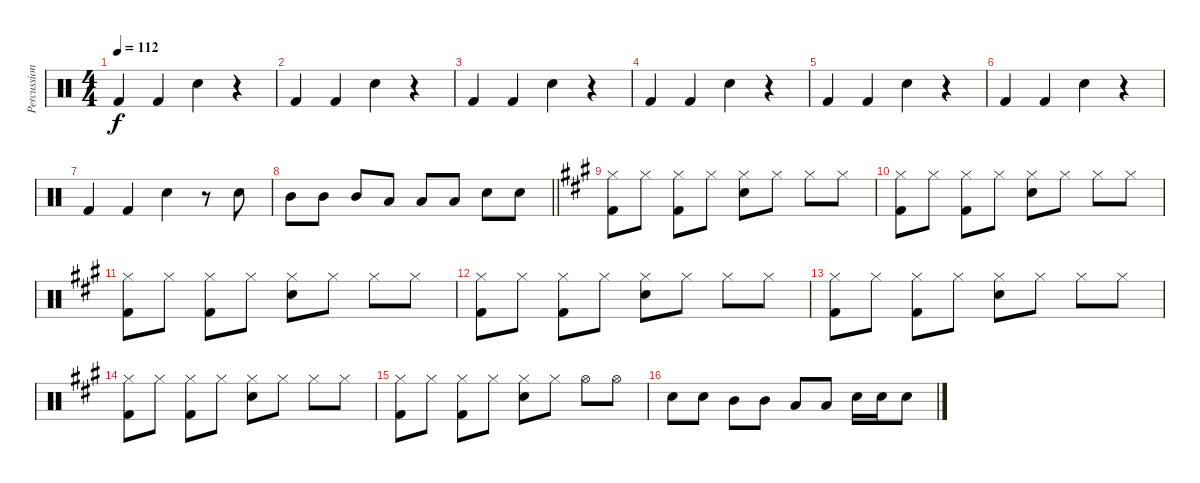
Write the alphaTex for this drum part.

\track ("Percussion" "Percussion") {instrument percussion}
\staff {score}
\articulation defaults
\ts (4 4)
\tempo 112
\clef neutral
\ks c "Kick (hit) 2".4{dy f} "Kick (hit) 2".4 "Snare (hit) 2".4
r.4 |
"Kick (hit) 2".4 "Kick (hit) 2".4 "Snare (hit) 2".4 r.4 |
"Kick (hit) 2".4 "Kick (hit) 2".4 "Snare (hit) 2".4 r.4 |
"Kick (hit) 2".4 "Kick (hit) 2".4 "Snare (hit) 2".4 r.4 |
"Kick (hit) 2".4 "Kick (hit) 2".4 "Snare (hit) 2".4 r.4 |
"Kick (hit) 2".4 "Kick (hit) 2".4 "Snare (hit) 2".4 r.4 |
"Kick (hit) 2".4 "Kick (hit) 2".4 "Snare (hit) 2".4 r.8 "Snare (hit) 2".8 |
\barLineRight lightlight "Mid Tom (hit)".8 "Mid Tom (hit)".8 "Mid Tom (hit)".8 "Low Tom (hit)".8 "Low Tom (hit)".8 "Low Tom (hit)".8 "Snare (hit) 2".8 "Snare (hit) 2".8
|
\ks a
("Hi-Hat (closed)" "Kick (hit) 2").8 "Hi-Hat (closed)".8 ("Hi-Hat (closed)" "Kick (hit) 2").8 "Hi-Hat (closed)".8 ("Hi-Hat (closed)" "Snare (hit) 2").8 "Hi-Hat (closed)".8 "Hi-Hat (closed)".8 "Hi-Hat (closed)".8 |
("Hi-Hat (closed)" "Kick (hit) 2").8 "Hi-Hat (closed)".8 ("Hi-Hat (closed)" "Kick (hit) 2").8 "Hi-Hat (closed)".8 ("Hi-Hat (closed)" "Snare (hit) 2").8 "Hi-Hat (closed)".8 "Hi-Hat (closed)".8 "Hi-Hat (closed)".8 |
("Hi-Hat (closed)" "Kick (hit) 2").8 "Hi-Hat (closed)".8 ("Hi-Hat (closed)" "Kick (hit) 2").8 "Hi-Hat (closed)".8 ("Hi-Hat (closed)" "Snare (hit) 2").8 "Hi-Hat (closed)".8 "Hi-Hat (closed)".8 "Hi-Hat (closed)".8 |
("Hi-Hat (closed)" "Kick (hit) 2").8 "Hi-Hat (closed)".8 ("Hi-Hat (closed)" "Kick (hit) 2").8 "Hi-Hat (closed)".8 ("Hi-Hat (closed)" "Snare (hit) 2").8 "Hi-Hat (closed)".8 "Hi-Hat (closed)".8 "Hi-Hat (closed)".8 |
("Hi-Hat (closed)" "Kick (hit) 2").8 "Hi-Hat (closed)".8 ("Hi-Hat (closed)" "Kick (hit) 2").8 "Hi-Hat (closed)".8 ("Hi-Hat (closed)" "Snare (hit) 2").8 "Hi-Hat (closed)".8 "Hi-Hat (closed)".8 "Hi-Hat (closed)".8 |
("Hi-Hat (closed)" "Kick (hit) 2").8 "Hi-Hat (closed)".8 ("Hi-Hat (closed)" "Kick (hit) 2").8 "Hi-Hat (closed)".8 ("Hi-Hat (closed)" "Snare (hit) 2").8 "Hi-Hat (closed)".8 "Hi-Hat (closed)".8 "Hi-Hat (closed)".8 |
("Hi-Hat (closed)" "Kick (hit) 2").8 "Hi-Hat (closed)".8 ("Hi-Hat (closed)" "Kick (hit) 2").8 "Hi-Hat (closed)".8 ("Hi-Hat (closed)" "Snare (hit) 2").8 "Hi-Hat (closed)".8 "Hi-Hat (open)".8 "Hi-Hat (open)".8 |
"Snare (hit) 2".8 "Snare (hit) 2".8 "Mid Tom (hit)".8 "Mid Tom (hit)".8 "Low Tom (hit)".8 "Low Tom (hit)".8 "Snare (hit) 2".16 "Snare (hit) 2".16 "Snare (hit) 2".8
